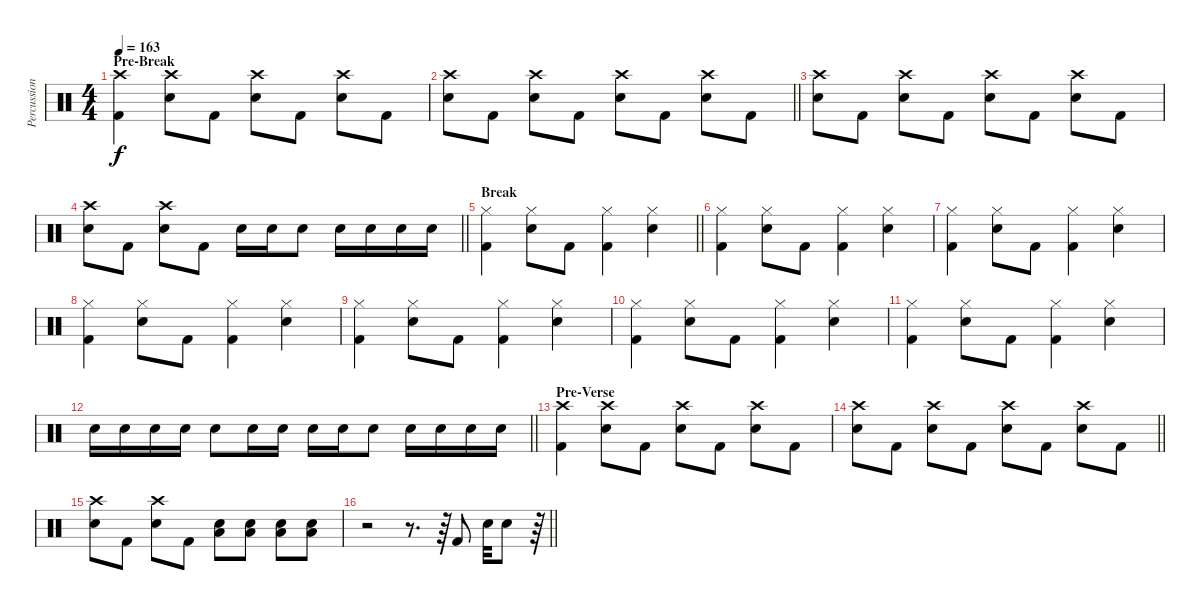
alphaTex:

\track ("Percussion" "Percussion") {instrument percussion}
\staff {score}
\articulation defaults
\ts (4 4)
\section ("" "Pre-Break")
\tempo 163
\clef neutral
\ks c
("Crash high (hit)" "Kick (hit) 2").4{dy f} ("Crash high (hit)" "Electric Snare (hit)").8 "Kick (hit) 2".8 ("Crash high (hit)" "Electric Snare (hit)").8 "Kick (hit) 2".8 ("Crash high (hit)" "Electric Snare (hit)").8 "Kick (hit) 2".8 |
\barLineRight lightlight
("Crash high (hit)" "Electric Snare (hit)").8 "Kick (hit) 2".8 ("Crash high (hit)" "Electric Snare (hit)").8 "Kick (hit) 2".8 ("Crash high (hit)" "Electric Snare (hit)").8 "Kick (hit) 2".8 ("Crash high (hit)" "Electric Snare (hit)").8 "Kick (hit) 2".8 |
("Crash high (hit)" "Electric Snare (hit)").8 "Kick (hit) 2".8 ("Crash high (hit)" "Electric Snare (hit)").8 "Kick (hit) 2".8 ("Crash high (hit)" "Electric Snare (hit)").8 "Kick (hit) 2".8 ("Crash high (hit)" "Electric Snare (hit)").8 "Kick (hit) 2".8 |
\barLineRight lightlight
("Crash high (hit)" "Electric Snare (hit)").8 "Kick (hit) 2".8 ("Crash high (hit)" "Electric Snare (hit)").8 "Kick (hit) 2".8 "Electric Snare (hit)".16 "Electric Snare (hit)".16 "Electric Snare (hit)".8 "Electric Snare (hit)".16 "Electric Snare (hit)".16 "Electric Snare (hit)".16 "Electric Snare (hit)".16 |
\section ("" "Break")
\barLineRight lightlight
("Hi-Hat (closed)" "Kick (hit) 2").4 ("Hi-Hat (closed)" "Electric Snare (hit)").8 "Kick (hit) 2".8 ("Hi-Hat (closed)" "Kick (hit) 2").4 ("Hi-Hat (closed)" "Electric Snare (hit)").4 |
("Hi-Hat (closed)" "Kick (hit) 2").4 ("Hi-Hat (closed)" "Electric Snare (hit)").8 "Kick (hit) 2".8 ("Hi-Hat (closed)" "Kick (hit) 2").4 ("Hi-Hat (closed)" "Electric Snare (hit)").4 |
("Hi-Hat (closed)" "Kick (hit) 2").4 ("Hi-Hat (closed)" "Electric Snare (hit)").8 "Kick (hit) 2".8 ("Hi-Hat (closed)" "Kick (hit) 2").4 ("Hi-Hat (closed)" "Electric Snare (hit)").4 |
("Hi-Hat (closed)" "Kick (hit) 2").4 ("Hi-Hat (closed)" "Electric Snare (hit)").8 "Kick (hit) 2".8 ("Hi-Hat (closed)" "Kick (hit) 2").4 ("Hi-Hat (closed)" "Electric Snare (hit)").4 |
("Hi-Hat (closed)" "Kick (hit) 2").4 ("Hi-Hat (closed)" "Electric Snare (hit)").8 "Kick (hit) 2".8 ("Hi-Hat (closed)" "Kick (hit) 2").4 ("Hi-Hat (closed)" "Electric Snare (hit)").4 |
("Hi-Hat (closed)" "Kick (hit) 2").4 ("Hi-Hat (closed)" "Electric Snare (hit)").8 "Kick (hit) 2".8 ("Hi-Hat (closed)" "Kick (hit) 2").4 ("Hi-Hat (closed)" "Electric Snare (hit)").4 |
("Hi-Hat (closed)" "Kick (hit) 2").4 ("Hi-Hat (closed)" "Electric Snare (hit)").8 "Kick (hit) 2".8 ("Hi-Hat (closed)" "Kick (hit) 2").4 ("Hi-Hat (closed)" "Electric Snare (hit)").4 |
\barLineRight lightlight "Electric Snare (hit)".16 "Electric Snare (hit)".16 "Electric Snare (hit)".16 "Electric Snare (hit)".16 "Electric Snare (hit)".8 "Electric Snare (hit)".16 "Electric Snare (hit)".16 "Electric Snare (hit)".16 "Electric Snare (hit)".16 "Electric Snare (hit)".8 "Electric Snare (hit)".16 "Electric Snare (hit)".16 "Electric Snare (hit)".16 "Electric Snare (hit)".16
|
\section ("" "Pre-Verse")
("Crash high (hit)" "Kick (hit) 2").4 ("Crash high (hit)" "Electric Snare (hit)").8 "Kick (hit) 2".8 ("Crash high (hit)" "Electric Snare (hit)").8 "Kick (hit) 2".8 ("Crash high (hit)" "Electric Snare (hit)").8 "Kick (hit) 2".8 |
\barLineRight lightlight
("Crash high (hit)" "Electric Snare (hit)").8 "Kick (hit) 2".8 ("Crash high (hit)" "Electric Snare (hit)").8 "Kick (hit) 2".8 ("Crash high (hit)" "Electric Snare (hit)").8 "Kick (hit) 2".8 ("Crash high (hit)" "Electric Snare (hit)").8 "Kick (hit) 2".8 |
("Crash high (hit)" "Electric Snare (hit)").8 "Kick (hit) 2".8 ("Crash high (hit)" "Electric Snare (hit)").8 "Kick (hit) 2".8 ("Low Floor Tom (hit)" "Electric Snare (hit)").8 ("Low Floor Tom (hit)" "Electric Snare (hit)").8 ("Low Floor Tom (hit)" "Electric Snare (hit)").8 ("Low Floor Tom (hit)" "Electric Snare (hit)").8 |
\barLineRight lightlight
r.2 r.8{d} r.64 "Kick (hit) 2".8 "Electric Snare (hit)".32 "Electric Snare (hit)".8 r.64
